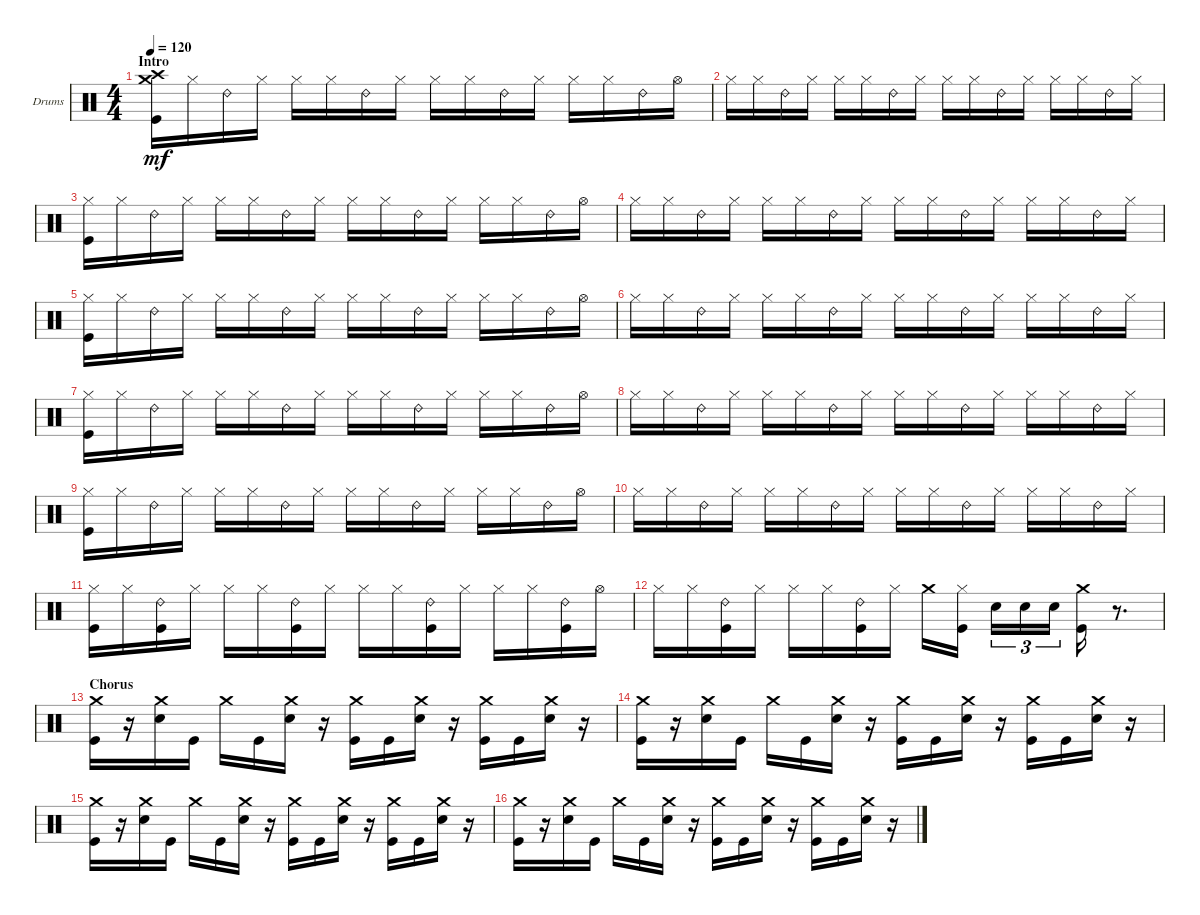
\bracketExtendMode groupsimilarinstruments
\firstSystemTrackNameOrientation horizontal
\otherSystemsTrackNameOrientation horizontal
\track ("Drumkit" "Drums") {instrument percussion}
\staff {score}
\articulation defaults
\ts (4 4)
\beaming (8 2 2 2 2)
\section ("" "Intro")
\tempo 120
\clef neutral
\ks c
("Kick (hit)" "Crash medium (hit)" "Crash high (hit)").16{dy mf} "Hi-Hat (closed)".16 "Ride (bell) 2".16 "Hi-Hat (closed)".16 "Hi-Hat (closed)".16 "Hi-Hat (closed)".16 "Ride (bell) 2".16 "Hi-Hat (closed)".16 "Hi-Hat (closed)".16 "Hi-Hat (closed)".16 "Ride (bell) 2".16 "Hi-Hat (closed)".16 "Hi-Hat (closed)".16 "Hi-Hat (closed)".16 "Ride (bell) 2".16 "Hi-Hat (open)".16 |
"Hi-Hat (closed)".16 "Hi-Hat (closed)".16 "Ride (bell) 2".16 "Hi-Hat (closed)".16 "Hi-Hat (closed)".16 "Hi-Hat (closed)".16 "Ride (bell) 2".16 "Hi-Hat (closed)".16 "Hi-Hat (closed)".16 "Hi-Hat (closed)".16 "Ride (bell) 2".16 "Hi-Hat (closed)".16 "Hi-Hat (closed)".16 "Hi-Hat (closed)".16 "Ride (bell) 2".16 "Hi-Hat (closed)".16 |
("Kick (hit)" "Hi-Hat (closed)").16 "Hi-Hat (closed)".16 "Ride (bell) 2".16 "Hi-Hat (closed)".16 "Hi-Hat (closed)".16 "Hi-Hat (closed)".16 "Ride (bell) 2".16 "Hi-Hat (closed)".16 "Hi-Hat (closed)".16 "Hi-Hat (closed)".16 "Ride (bell) 2".16 "Hi-Hat (closed)".16 "Hi-Hat (closed)".16 "Hi-Hat (closed)".16 "Ride (bell) 2".16 "Hi-Hat (open)".16 |
"Hi-Hat (closed)".16 "Hi-Hat (closed)".16 "Ride (bell) 2".16 "Hi-Hat (closed)".16 "Hi-Hat (closed)".16 "Hi-Hat (closed)".16 "Ride (bell) 2".16 "Hi-Hat (closed)".16 "Hi-Hat (closed)".16 "Hi-Hat (closed)".16 "Ride (bell) 2".16 "Hi-Hat (closed)".16 "Hi-Hat (closed)".16 "Hi-Hat (closed)".16 "Ride (bell) 2".16 "Hi-Hat (closed)".16 |
("Kick (hit)" "Hi-Hat (closed)").16 "Hi-Hat (closed)".16 "Ride (bell) 2".16 "Hi-Hat (closed)".16 "Hi-Hat (closed)".16 "Hi-Hat (closed)".16 "Ride (bell) 2".16 "Hi-Hat (closed)".16 "Hi-Hat (closed)".16 "Hi-Hat (closed)".16 "Ride (bell) 2".16 "Hi-Hat (closed)".16 "Hi-Hat (closed)".16 "Hi-Hat (closed)".16 "Ride (bell) 2".16 "Hi-Hat (open)".16 |
"Hi-Hat (closed)".16 "Hi-Hat (closed)".16 "Ride (bell) 2".16 "Hi-Hat (closed)".16 "Hi-Hat (closed)".16 "Hi-Hat (closed)".16 "Ride (bell) 2".16 "Hi-Hat (closed)".16 "Hi-Hat (closed)".16 "Hi-Hat (closed)".16 "Ride (bell) 2".16 "Hi-Hat (closed)".16 "Hi-Hat (closed)".16 "Hi-Hat (closed)".16 "Ride (bell) 2".16 "Hi-Hat (closed)".16 |
("Kick (hit)" "Hi-Hat (closed)").16 "Hi-Hat (closed)".16 "Ride (bell) 2".16 "Hi-Hat (closed)".16 "Hi-Hat (closed)".16 "Hi-Hat (closed)".16 "Ride (bell) 2".16 "Hi-Hat (closed)".16 "Hi-Hat (closed)".16 "Hi-Hat (closed)".16 "Ride (bell) 2".16 "Hi-Hat (closed)".16 "Hi-Hat (closed)".16 "Hi-Hat (closed)".16 "Ride (bell) 2".16 "Hi-Hat (open)".16 |
"Hi-Hat (closed)".16 "Hi-Hat (closed)".16 "Ride (bell) 2".16 "Hi-Hat (closed)".16 "Hi-Hat (closed)".16 "Hi-Hat (closed)".16 "Ride (bell) 2".16 "Hi-Hat (closed)".16 "Hi-Hat (closed)".16 "Hi-Hat (closed)".16 "Ride (bell) 2".16 "Hi-Hat (closed)".16 "Hi-Hat (closed)".16 "Hi-Hat (closed)".16 "Ride (bell) 2".16 "Hi-Hat (closed)".16 |
("Kick (hit)" "Hi-Hat (closed)").16 "Hi-Hat (closed)".16 "Ride (bell) 2".16 "Hi-Hat (closed)".16 "Hi-Hat (closed)".16 "Hi-Hat (closed)".16 "Ride (bell) 2".16 "Hi-Hat (closed)".16 "Hi-Hat (closed)".16 "Hi-Hat (closed)".16 "Ride (bell) 2".16 "Hi-Hat (closed)".16 "Hi-Hat (closed)".16 "Hi-Hat (closed)".16 "Ride (bell) 2".16 "Hi-Hat (open)".16 |
"Hi-Hat (closed)".16 "Hi-Hat (closed)".16 "Ride (bell) 2".16 "Hi-Hat (closed)".16 "Hi-Hat (closed)".16 "Hi-Hat (closed)".16 "Ride (bell) 2".16 "Hi-Hat (closed)".16 "Hi-Hat (closed)".16 "Hi-Hat (closed)".16 "Ride (bell) 2".16 "Hi-Hat (closed)".16 "Hi-Hat (closed)".16 "Hi-Hat (closed)".16 "Ride (bell) 2".16 "Hi-Hat (closed)".16 |
("Kick (hit)" "Hi-Hat (closed)").16 "Hi-Hat (closed)".16 ("Ride (bell) 2" "Kick (hit)").16 "Hi-Hat (closed)".16 "Hi-Hat (closed)".16 "Hi-Hat (closed)".16 ("Ride (bell) 2" "Kick (hit)").16 "Hi-Hat (closed)".16 "Hi-Hat (closed)".16 "Hi-Hat (closed)".16 ("Ride (bell) 2" "Kick (hit)").16 "Hi-Hat (closed)".16 "Hi-Hat (closed)".16 "Hi-Hat (closed)".16 ("Ride (bell) 2" "Kick (hit)").16 "Hi-Hat (open)".16 |
"Hi-Hat (closed)".16 "Hi-Hat (closed)".16 ("Ride (bell) 2" "Kick (hit)").16 "Hi-Hat (closed)".16 "Hi-Hat (closed)".16 "Hi-Hat (closed)".16 ("Ride (bell) 2" "Kick (hit)").16 "Hi-Hat (closed)".16 "Crash medium (hit)".16 ("Hi-Hat (closed)" "Kick (hit)").16 "Snare (hit) 2".16{tu (3 2)} "Snare (hit) 2".16{tu (3 2)} "Snare (hit) 2".16{tu (3 2)} ("Crash medium (hit)" "Kick (hit)").16 r.8{d} |
\section ("" "Chorus")
("Kick (hit)" "Crash medium (hit)").16 r.16 ("Snare (hit) 2" "Crash medium (hit)").16 "Kick (hit)".16 "Crash medium (hit)".16 "Kick (hit)".16 ("Snare (hit) 2" "Crash medium (hit)").16 r.16 ("Kick (hit)" "Crash medium (hit)").16 "Kick (hit)".16 ("Snare (hit) 2" "Crash medium (hit)").16 r.16 ("Kick (hit)" "Crash medium (hit)").16 "Kick (hit)".16 ("Snare (hit) 2" "Crash medium (hit)").16 r.16 |
("Kick (hit)" "Crash medium (hit)").16 r.16 ("Snare (hit) 2" "Crash medium (hit)").16 "Kick (hit)".16 "Crash medium (hit)".16 "Kick (hit)".16 ("Snare (hit) 2" "Crash medium (hit)").16 r.16 ("Kick (hit)" "Crash medium (hit)").16 "Kick (hit)".16 ("Snare (hit) 2" "Crash medium (hit)").16 r.16 ("Kick (hit)" "Crash medium (hit)").16 "Kick (hit)".16 ("Snare (hit) 2" "Crash medium (hit)").16 r.16 |
("Kick (hit)" "Crash medium (hit)").16 r.16 ("Snare (hit) 2" "Crash medium (hit)").16 "Kick (hit)".16 "Crash medium (hit)".16 "Kick (hit)".16 ("Snare (hit) 2" "Crash medium (hit)").16 r.16 ("Kick (hit)" "Crash medium (hit)").16 "Kick (hit)".16 ("Snare (hit) 2" "Crash medium (hit)").16 r.16 ("Kick (hit)" "Crash medium (hit)").16 "Kick (hit)".16 ("Snare (hit) 2" "Crash medium (hit)").16 r.16 |
("Kick (hit)" "Crash medium (hit)").16 r.16 ("Snare (hit) 2" "Crash medium (hit)").16 "Kick (hit)".16 "Crash medium (hit)".16 "Kick (hit)".16 ("Snare (hit) 2" "Crash medium (hit)").16 r.16 ("Kick (hit)" "Crash medium (hit)").16 "Kick (hit)".16 ("Snare (hit) 2" "Crash medium (hit)").16 r.16 ("Kick (hit)" "Crash medium (hit)").16 "Kick (hit)".16 ("Snare (hit) 2" "Crash medium (hit)").16 r.16
